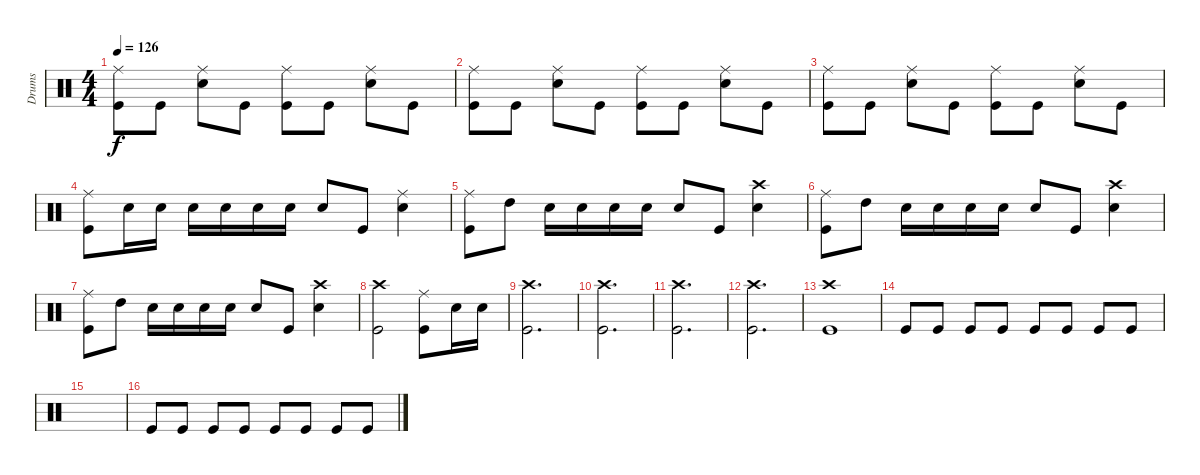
\track ("Drums" "Drums") {instrument percussion}
\staff {score}
\articulation defaults
\ts (4 4)
\tempo 126
\clef neutral
\ks c
("Ride (middle)" "Kick (hit)").8{dy f} "Kick (hit)".8 ("Ride (middle)" "Electric Snare (hit)").8 "Kick (hit)".8 ("Ride (middle)" "Kick (hit)").8 "Kick (hit)".8 ("Ride (middle)" "Electric Snare (hit)").8 "Kick (hit)".8 |
("Ride (middle)" "Kick (hit)").8 "Kick (hit)".8 ("Ride (middle)" "Electric Snare (hit)").8 "Kick (hit)".8 ("Ride (middle)" "Kick (hit)").8 "Kick (hit)".8 ("Ride (middle)" "Electric Snare (hit)").8 "Kick (hit)".8 |
("Ride (middle)" "Kick (hit)").8 "Kick (hit)".8 ("Ride (middle)" "Electric Snare (hit)").8 "Kick (hit)".8 ("Ride (middle)" "Kick (hit)").8 "Kick (hit)".8 ("Ride (middle)" "Electric Snare (hit)").8 "Kick (hit)".8 |
("Ride (middle)" "Kick (hit)").8 "Electric Snare (hit)".16 "Electric Snare (hit)".16 "Electric Snare (hit)".16 "Electric Snare (hit)".16 "Electric Snare (hit)".16 "Electric Snare (hit)".16 "Electric Snare (hit)".8 "Kick (hit)".8 ("Ride (middle)" "Electric Snare (hit)").4 |
("Ride (middle)" "Kick (hit)").8 "High Tom (hit)".8 "Electric Snare (hit)".16 "Electric Snare (hit)".16 "Electric Snare (hit)".16 "Electric Snare (hit)".16 "Electric Snare (hit)".8 "Kick (hit)".8 ("Crash high (hit)" "Electric Snare (hit)").4 |
("Ride (middle)" "Kick (hit)").8 "High Tom (hit)".8 "Electric Snare (hit)".16 "Electric Snare (hit)".16 "Electric Snare (hit)".16 "Electric Snare (hit)".16 "Electric Snare (hit)".8 "Kick (hit)".8 ("Crash high (hit)" "Electric Snare (hit)").4 |
("Ride (middle)" "Kick (hit)").8 "High Tom (hit)".8 "Electric Snare (hit)".16 "Electric Snare (hit)".16 "Electric Snare (hit)".16 "Electric Snare (hit)".16 "Electric Snare (hit)".8 "Kick (hit)".8 ("Crash high (hit)" "Electric Snare (hit)").4 |
("Crash high (hit)" "Kick (hit)").2 ("Ride (middle)" "Kick (hit)").8 "Electric Snare (hit)".16 "Electric Snare (hit)".16 |
("Crash high (hit)" "Kick (hit)").2{d} |
("Crash high (hit)" "Kick (hit)").2{d} |
("Crash high (hit)" "Kick (hit)").2{d} |
("Crash high (hit)" "Kick (hit)").2{d} |
("Crash high (hit)" "Kick (hit)").1 |
"Kick (hit)".8 "Kick (hit)".8 "Kick (hit)".8 "Kick (hit)".8 "Kick (hit)".8 "Kick (hit)".8 "Kick (hit)".8 "Kick (hit)".8 |
|
"Kick (hit)".8 "Kick (hit)".8 "Kick (hit)".8 "Kick (hit)".8 "Kick (hit)".8 "Kick (hit)".8 "Kick (hit)".8 "Kick (hit)".8
